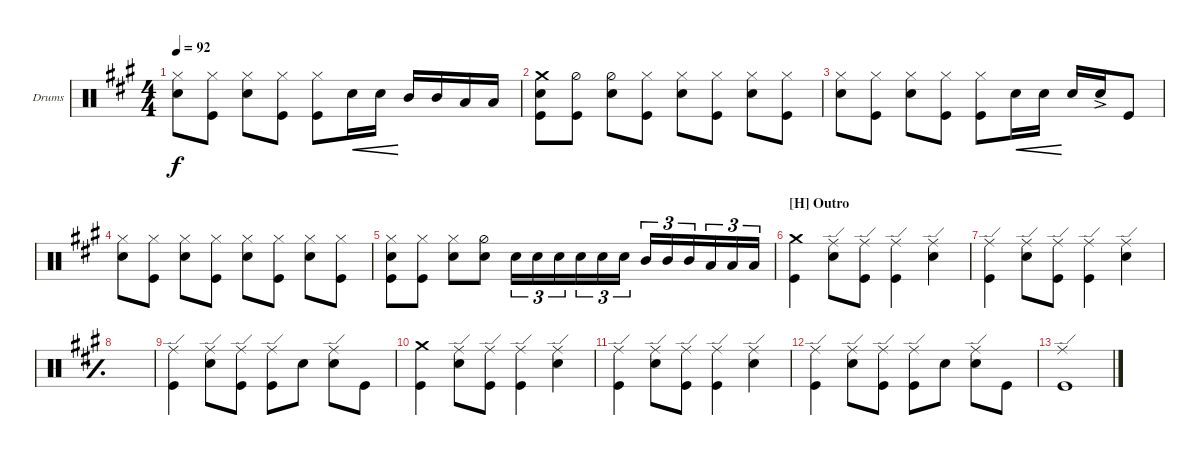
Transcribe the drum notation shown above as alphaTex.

\defaultSystemsLayout 4
\bracketExtendMode groupsimilarinstruments
\firstSystemTrackNameOrientation horizontal
\otherSystemsTrackNameOrientation horizontal
\track ("Matt Helders (Drums)" "Drums") {instrument percussion}
\staff {score}
\articulation defaults
\ts (4 4)
\tempo 92
\clef neutral
\ks a
("Snare (hit) 2" "Hi-Hat (closed)").8{dy f} ("Hi-Hat (closed)" "Kick (hit)").8 ("Snare (hit) 2" "Hi-Hat (closed)").8 ("Hi-Hat (closed)" "Kick (hit)").8 ("Kick (hit)" "Hi-Hat (closed)").8 "Snare (hit) 2".16{cre} "Snare (hit) 2".16{cre} "Mid Tom (hit)".16 "Mid Tom (hit)".16 "Low Tom (hit)".16 "Low Tom (hit)".16 |
("Snare (hit) 2" "Kick (hit)" "Crash medium (hit)").8 ("Hi-Hat (half)" "Kick (hit)").8 ("Snare (hit) 2" "Hi-Hat (half)").8 ("Hi-Hat (closed)" "Kick (hit)").8 ("Hi-Hat (closed)" "Snare (hit) 2").8 ("Hi-Hat (closed)" "Kick (hit)").8 ("Snare (hit) 2" "Hi-Hat (closed)").8 ("Hi-Hat (closed)" "Kick (hit)").8 |
("Hi-Hat (closed)" "Snare (hit) 2").8 ("Hi-Hat (closed)" "Kick (hit)").8 ("Snare (hit) 2" "Hi-Hat (closed)").8 ("Hi-Hat (closed)" "Kick (hit)").8 ("Kick (hit)" "Hi-Hat (closed)").8 "Snare (hit) 2".16{cre} "Snare (hit) 2".16{cre} "Snare (hit) 2".16 "Snare (hit) 2"{ac}.16 "Kick (hit)".8 |
("Snare (hit) 2" "Hi-Hat (closed)").8 ("Hi-Hat (closed)" "Kick (hit)").8 ("Snare (hit) 2" "Hi-Hat (closed)").8 ("Hi-Hat (closed)" "Kick (hit)").8 ("Hi-Hat (closed)" "Snare (hit) 2").8 ("Hi-Hat (closed)" "Kick (hit)").8 ("Snare (hit) 2" "Hi-Hat (closed)").8 ("Hi-Hat (closed)" "Kick (hit)").8 |
("Kick (hit)" "Snare (hit) 2" "Hi-Hat (closed)").8 ("Hi-Hat (closed)" "Kick (hit)").8 ("Snare (hit) 2" "Hi-Hat (closed)").8 ("Snare (hit) 2" "Hi-Hat (half)").8 "Snare (hit) 2".16{tu (3 2) beam merge} "Snare (hit) 2".16{tu (3 2) beam merge} "Snare (hit) 2".16{tu (3 2) beam merge} "Snare (hit) 2".16{tu (3 2) beam merge} "Snare (hit) 2".16{tu (3 2) beam merge} "Snare (hit) 2".16{tu (3 2)} "Mid Tom (hit)".16{tu (3 2) beam merge} "Mid Tom (hit)".16{tu (3 2) beam merge} "Mid Tom (hit)".16{tu (3 2) beam merge} "Low Tom (hit)".16{tu (3 2) beam merge} "Low Tom (hit)".16{tu (3 2) beam merge} "Low Tom (hit)".16{tu (3 2)} |
\section ("H" "Outro")
("Kick (hit)" "Crash medium (hit)").4 ("Snare (hit) 2" "Ride (edge)").8 ("Kick (hit)" "Ride (edge)").8 ("Kick (hit)" "Ride (edge)").4 ("Snare (hit) 2" "Ride (edge)").4 |
("Kick (hit)" "Ride (edge)").4 ("Snare (hit) 2" "Ride (edge)").8 ("Kick (hit)" "Ride (edge)").8 ("Kick (hit)" "Ride (edge)").4 ("Snare (hit) 2" "Ride (edge)").4 |
\simile simple
|
\simile none
("Kick (hit)" "Ride (edge)").4 ("Snare (hit) 2" "Ride (edge)").8 ("Kick (hit)" "Ride (edge)").8 ("Kick (hit)" "Ride (edge)").8 "Snare (hit) 2".8 ("Snare (hit) 2" "Ride (edge)").8 "Kick (hit)".8 |
("Kick (hit)" "Crash medium (hit)").4 ("Snare (hit) 2" "Ride (edge)").8 ("Kick (hit)" "Ride (edge)").8 ("Kick (hit)" "Ride (edge)").4 ("Snare (hit) 2" "Ride (edge)").4 |
("Kick (hit)" "Ride (edge)").4 ("Snare (hit) 2" "Ride (edge)").8 ("Kick (hit)" "Ride (edge)").8 ("Kick (hit)" "Ride (edge)").4 ("Snare (hit) 2" "Ride (edge)").4 |
("Kick (hit)" "Ride (edge)").4 ("Snare (hit) 2" "Ride (edge)").8 ("Kick (hit)" "Ride (edge)").8 ("Kick (hit)" "Ride (edge)").8 "Snare (hit) 2".8 ("Snare (hit) 2" "Ride (edge)").8 "Kick (hit)".8 |
("Kick (hit)" "Ride (edge)").1
